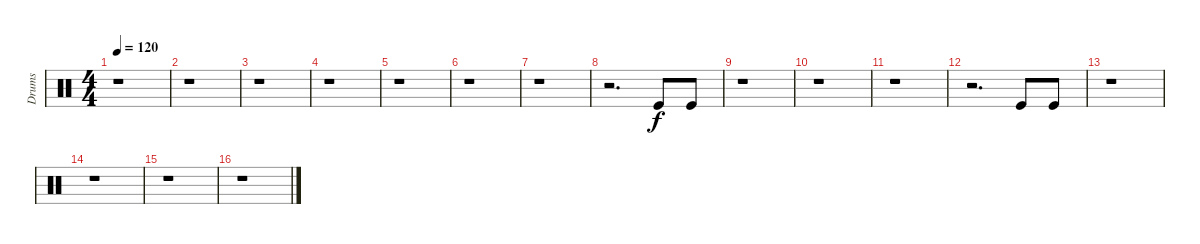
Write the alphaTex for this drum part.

\track ("Drums" "Drums") {instrument percussion}
\staff {score}
\articulation defaults
\ts (4 4)
\tempo 120
\clef neutral
\ks c
r.1{dy f} |
r.1 |
r.1 |
r.1 |
r.1 |
r.1 |
r.1 |
r.2{d} "Kick (hit)".8 "Kick (hit)".8 |
r.1 |
r.1 |
r.1 |
r.2{d} "Kick (hit)".8 "Kick (hit)".8 |
r.1 |
r.1 |
r.1 |
r.1
